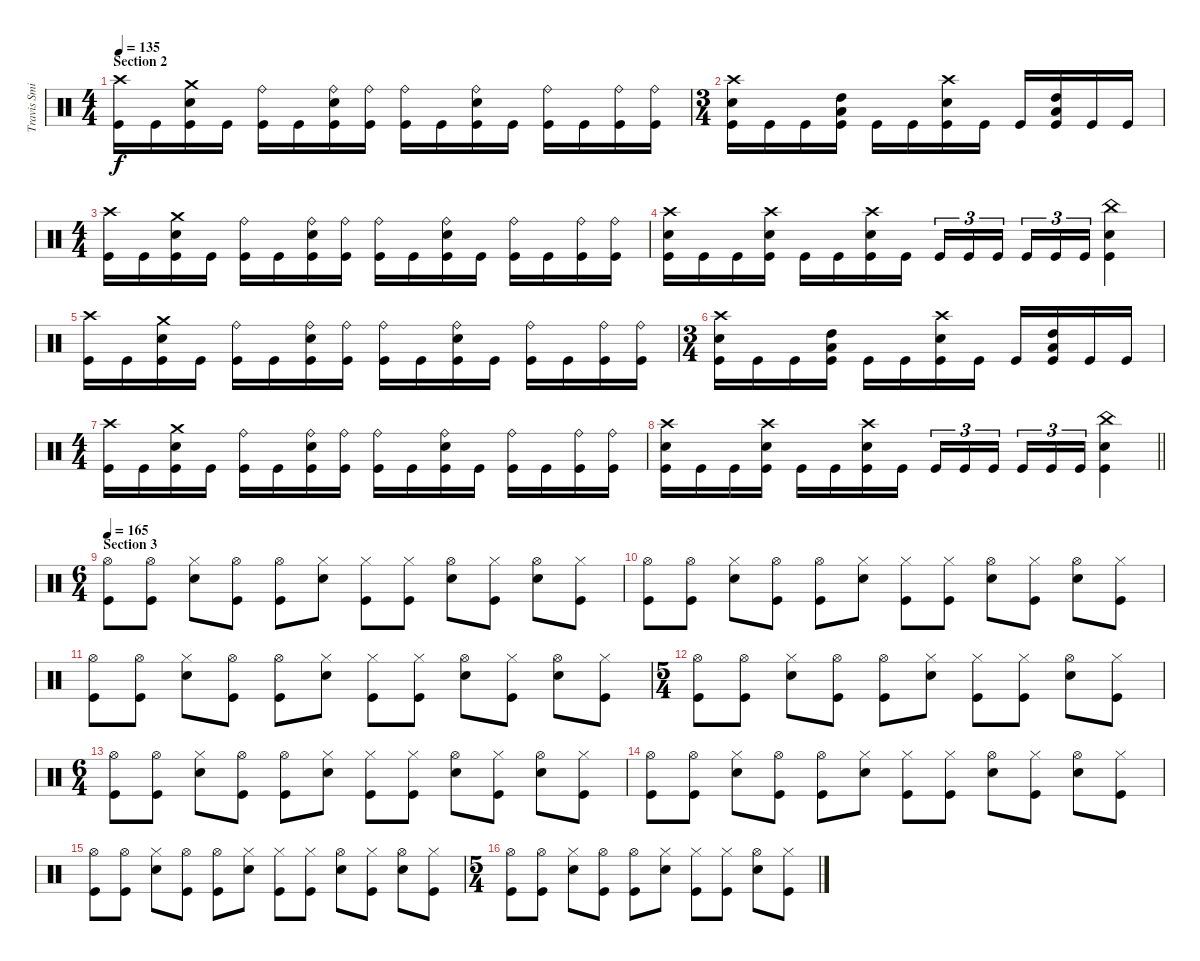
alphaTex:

\track ("Travis Smith" "Travis Smi") {instrument percussion}
\staff {score}
\articulation defaults
\ts (4 4)
\section ("" "Section 2")
\tempo 135
\clef neutral
\ks c
("Crash high (hit)" "Kick (hit)").16{dy f} "Kick (hit)".16 ("Crash medium (hit)" "Electric Snare (hit)" "Kick (hit)").16 "Kick (hit)".16 ("Ride (bell)" "Kick (hit)").16 "Kick (hit)".16 ("Ride (bell)" "Electric Snare (hit)" "Kick (hit)").16 ("Ride (bell)" "Kick (hit)").16 ("Ride (bell)" "Kick (hit)").16 "Kick (hit)".16 ("Ride (bell)" "Electric Snare (hit)" "Kick (hit)").16 "Kick (hit)".16 ("Ride (bell)" "Kick (hit)").16 "Kick (hit)".16 ("Ride (bell)" "Kick (hit)").16 ("Ride (bell)" "Kick (hit)").16 |
\ts (3 4)
("Crash high (hit)" "Electric Snare (hit)" "Kick (hit)").16 "Kick (hit)".16 "Kick (hit)".16 ("High Tom (hit)" "Low Tom (hit)" "Kick (hit)").16 "Kick (hit)".16 "Kick (hit)".16 ("Crash high (hit)" "Electric Snare (hit)" "Kick (hit)").16 "Kick (hit)".16 "Kick (hit)".16 ("High Tom (hit)" "Low Tom (hit)" "Kick (hit)").16 "Kick (hit)".16 "Kick (hit)".16 |
\ts (4 4)
("Crash high (hit)" "Kick (hit)").16 "Kick (hit)".16 ("Crash medium (hit)" "Electric Snare (hit)" "Kick (hit)").16 "Kick (hit)".16 ("Ride (bell)" "Kick (hit)").16 "Kick (hit)".16 ("Ride (bell)" "Electric Snare (hit)" "Kick (hit)").16 ("Ride (bell)" "Kick (hit)").16 ("Ride (bell)" "Kick (hit)").16 "Kick (hit)".16 ("Ride (bell)" "Electric Snare (hit)" "Kick (hit)").16 "Kick (hit)".16 ("Ride (bell)" "Kick (hit)").16 "Kick (hit)".16 ("Ride (bell)" "Kick (hit)").16 ("Ride (bell)" "Kick (hit)").16 |
("Crash high (hit)" "Electric Snare (hit)" "Kick (hit)").16 "Kick (hit)".16 "Kick (hit)".16 ("Crash high (hit)" "Electric Snare (hit)" "Kick (hit)").16 "Kick (hit)".16 "Kick (hit)".16 ("Crash high (hit)" "Electric Snare (hit)" "Kick (hit)").16 "Kick (hit)".16 "Kick (hit)".16{tu (3 2)} "Kick (hit)".16{tu (3 2)} "Kick (hit)".16{tu (3 2) beam splitsecondary} "Kick (hit)".16{tu (3 2)} "Kick (hit)".16{tu (3 2)} "Kick (hit)".16{tu (3 2)} ("China (hit)" "Electric Snare (hit)" "Kick (hit)").4 |
("Crash high (hit)" "Kick (hit)").16 "Kick (hit)".16 ("Crash medium (hit)" "Electric Snare (hit)" "Kick (hit)").16 "Kick (hit)".16 ("Ride (bell)" "Kick (hit)").16 "Kick (hit)".16 ("Ride (bell)" "Electric Snare (hit)" "Kick (hit)").16 ("Ride (bell)" "Kick (hit)").16 ("Ride (bell)" "Kick (hit)").16 "Kick (hit)".16 ("Ride (bell)" "Electric Snare (hit)" "Kick (hit)").16 "Kick (hit)".16 ("Ride (bell)" "Kick (hit)").16 "Kick (hit)".16 ("Ride (bell)" "Kick (hit)").16 ("Ride (bell)" "Kick (hit)").16 |
\ts (3 4)
("Crash high (hit)" "Electric Snare (hit)" "Kick (hit)").16 "Kick (hit)".16 "Kick (hit)".16 ("High Tom (hit)" "Low Tom (hit)" "Kick (hit)").16 "Kick (hit)".16 "Kick (hit)".16 ("Crash high (hit)" "Electric Snare (hit)" "Kick (hit)").16 "Kick (hit)".16 "Kick (hit)".16 ("High Tom (hit)" "Low Tom (hit)" "Kick (hit)").16 "Kick (hit)".16 "Kick (hit)".16 |
\ts (4 4)
("Crash high (hit)" "Kick (hit)").16 "Kick (hit)".16 ("Crash medium (hit)" "Electric Snare (hit)" "Kick (hit)").16 "Kick (hit)".16 ("Ride (bell)" "Kick (hit)").16 "Kick (hit)".16 ("Ride (bell)" "Electric Snare (hit)" "Kick (hit)").16 ("Ride (bell)" "Kick (hit)").16 ("Ride (bell)" "Kick (hit)").16 "Kick (hit)".16 ("Ride (bell)" "Electric Snare (hit)" "Kick (hit)").16 "Kick (hit)".16 ("Ride (bell)" "Kick (hit)").16 "Kick (hit)".16 ("Ride (bell)" "Kick (hit)").16 ("Ride (bell)" "Kick (hit)").16 |
\barLineRight lightlight
("Crash high (hit)" "Electric Snare (hit)" "Kick (hit)").16 "Kick (hit)".16 "Kick (hit)".16 ("Crash high (hit)" "Electric Snare (hit)" "Kick (hit)").16 "Kick (hit)".16 "Kick (hit)".16 ("Crash high (hit)" "Electric Snare (hit)" "Kick (hit)").16 "Kick (hit)".16 "Kick (hit)".16{tu (3 2)} "Kick (hit)".16{tu (3 2)} "Kick (hit)".16{tu (3 2) beam splitsecondary} "Kick (hit)".16{tu (3 2)} "Kick (hit)".16{tu (3 2)} "Kick (hit)".16{tu (3 2)} ("China (hit)" "Electric Snare (hit)" "Kick (hit)").4 |
\ts (6 4)
\section ("" "Section 3")
\tempo 165
("Hi-Hat (open)" "Kick (hit)").8 ("Hi-Hat (open)" "Kick (hit)").8 ("Hi-Hat (closed)" "Electric Snare (hit)").8 ("Hi-Hat (open)" "Kick (hit)").8 ("Hi-Hat (open)" "Kick (hit)").8 ("Hi-Hat (closed)" "Electric Snare (hit)").8 ("Hi-Hat (closed)" "Kick (hit)").8 ("Hi-Hat (closed)" "Kick (hit)").8 ("Hi-Hat (open)" "Electric Snare (hit)").8 ("Hi-Hat (closed)" "Kick (hit)").8 ("Hi-Hat (open)" "Electric Snare (hit)").8 ("Hi-Hat (closed)" "Kick (hit)").8 |
("Hi-Hat (open)" "Kick (hit)").8 ("Hi-Hat (open)" "Kick (hit)").8 ("Hi-Hat (closed)" "Electric Snare (hit)").8 ("Hi-Hat (open)" "Kick (hit)").8 ("Hi-Hat (open)" "Kick (hit)").8 ("Hi-Hat (closed)" "Electric Snare (hit)").8 ("Hi-Hat (closed)" "Kick (hit)").8 ("Hi-Hat (closed)" "Kick (hit)").8 ("Hi-Hat (open)" "Electric Snare (hit)").8 ("Hi-Hat (closed)" "Kick (hit)").8 ("Hi-Hat (open)" "Electric Snare (hit)").8 ("Hi-Hat (closed)" "Kick (hit)").8 |
("Hi-Hat (open)" "Kick (hit)").8 ("Hi-Hat (open)" "Kick (hit)").8 ("Hi-Hat (closed)" "Electric Snare (hit)").8 ("Hi-Hat (open)" "Kick (hit)").8 ("Hi-Hat (open)" "Kick (hit)").8 ("Hi-Hat (closed)" "Electric Snare (hit)").8 ("Hi-Hat (closed)" "Kick (hit)").8 ("Hi-Hat (closed)" "Kick (hit)").8 ("Hi-Hat (open)" "Electric Snare (hit)").8 ("Hi-Hat (closed)" "Kick (hit)").8 ("Hi-Hat (open)" "Electric Snare (hit)").8 ("Hi-Hat (closed)" "Kick (hit)").8 |
\ts (5 4)
("Hi-Hat (open)" "Kick (hit)").8 ("Hi-Hat (open)" "Kick (hit)").8 ("Hi-Hat (closed)" "Electric Snare (hit)").8 ("Hi-Hat (open)" "Kick (hit)").8 ("Hi-Hat (open)" "Kick (hit)").8 ("Hi-Hat (closed)" "Electric Snare (hit)").8 ("Hi-Hat (closed)" "Kick (hit)").8 ("Hi-Hat (closed)" "Kick (hit)").8 ("Hi-Hat (open)" "Electric Snare (hit)").8 ("Hi-Hat (closed)" "Kick (hit)").8 |
\ts (6 4)
("Hi-Hat (open)" "Kick (hit)").8 ("Hi-Hat (open)" "Kick (hit)").8 ("Hi-Hat (closed)" "Electric Snare (hit)").8 ("Hi-Hat (open)" "Kick (hit)").8 ("Hi-Hat (open)" "Kick (hit)").8 ("Hi-Hat (closed)" "Electric Snare (hit)").8 ("Hi-Hat (closed)" "Kick (hit)").8 ("Hi-Hat (closed)" "Kick (hit)").8 ("Hi-Hat (open)" "Electric Snare (hit)").8 ("Hi-Hat (closed)" "Kick (hit)").8 ("Hi-Hat (open)" "Electric Snare (hit)").8 ("Hi-Hat (closed)" "Kick (hit)").8 |
("Hi-Hat (open)" "Kick (hit)").8 ("Hi-Hat (open)" "Kick (hit)").8 ("Hi-Hat (closed)" "Electric Snare (hit)").8 ("Hi-Hat (open)" "Kick (hit)").8 ("Hi-Hat (open)" "Kick (hit)").8 ("Hi-Hat (closed)" "Electric Snare (hit)").8 ("Hi-Hat (closed)" "Kick (hit)").8 ("Hi-Hat (closed)" "Kick (hit)").8 ("Hi-Hat (open)" "Electric Snare (hit)").8 ("Hi-Hat (closed)" "Kick (hit)").8 ("Hi-Hat (open)" "Electric Snare (hit)").8 ("Hi-Hat (closed)" "Kick (hit)").8 |
("Hi-Hat (open)" "Kick (hit)").8 ("Hi-Hat (open)" "Kick (hit)").8 ("Hi-Hat (closed)" "Electric Snare (hit)").8 ("Hi-Hat (open)" "Kick (hit)").8 ("Hi-Hat (open)" "Kick (hit)").8 ("Hi-Hat (closed)" "Electric Snare (hit)").8 ("Hi-Hat (closed)" "Kick (hit)").8 ("Hi-Hat (closed)" "Kick (hit)").8 ("Hi-Hat (open)" "Electric Snare (hit)").8 ("Hi-Hat (closed)" "Kick (hit)").8 ("Hi-Hat (open)" "Electric Snare (hit)").8 ("Hi-Hat (closed)" "Kick (hit)").8 |
\ts (5 4)
("Hi-Hat (open)" "Kick (hit)").8 ("Hi-Hat (open)" "Kick (hit)").8 ("Hi-Hat (closed)" "Electric Snare (hit)").8 ("Hi-Hat (open)" "Kick (hit)").8 ("Hi-Hat (open)" "Kick (hit)").8 ("Hi-Hat (closed)" "Electric Snare (hit)").8 ("Hi-Hat (closed)" "Kick (hit)").8 ("Hi-Hat (closed)" "Kick (hit)").8 ("Hi-Hat (open)" "Electric Snare (hit)").8 ("Hi-Hat (closed)" "Kick (hit)").8
